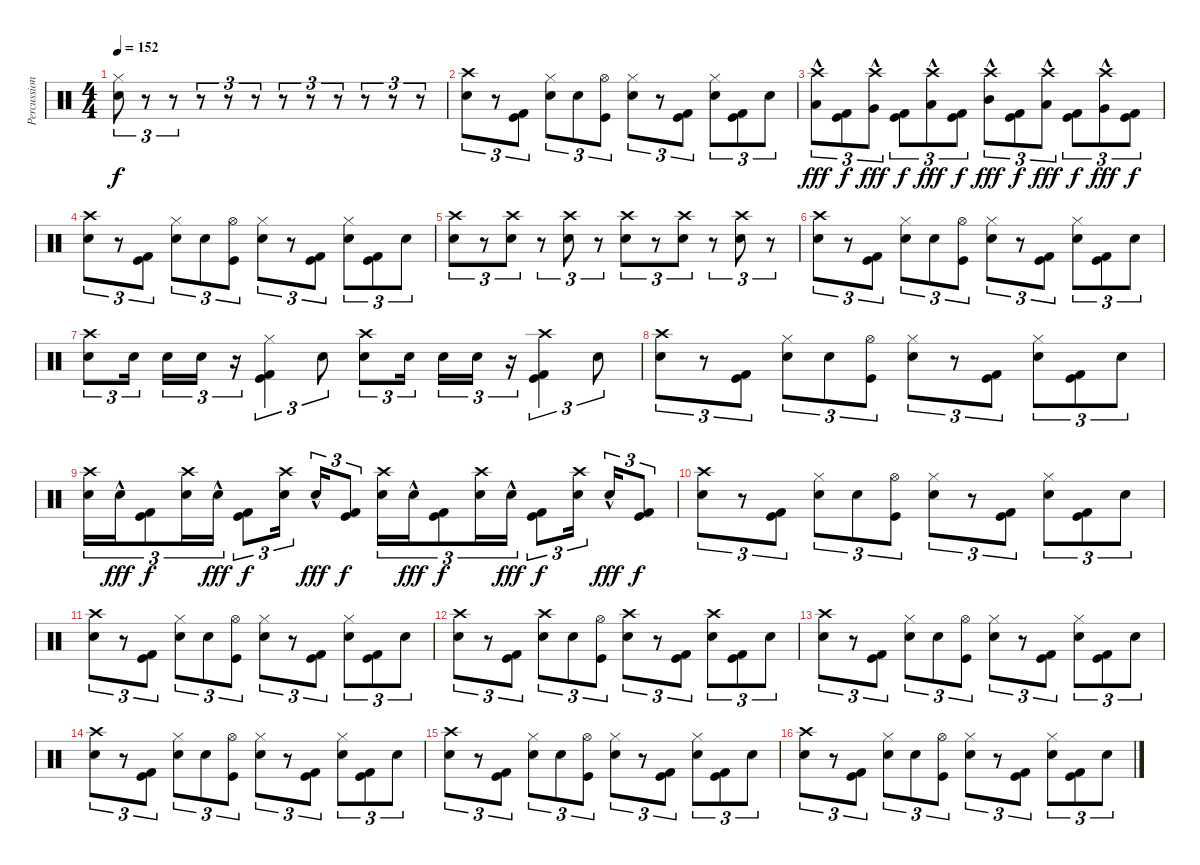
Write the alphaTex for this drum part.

\track ("Percussion" "Percussion") {instrument percussion}
\staff {score}
\articulation defaults
\ts (4 4)
\tempo 152
\clef neutral
\ks c
("Hi-Hat (closed)" "Electric Snare (hit)").8{tu (3 2) dy f} r.8{tu (3 2)} r.8{tu (3 2)} r.8{tu (3 2)} r.8{tu (3 2)} r.8{tu (3 2)} r.8{tu (3 2)} r.8{tu (3 2)} r.8{tu (3 2)} r.8{tu (3 2)} r.8{tu (3 2)} r.8{tu (3 2)} |
("Crash high (hit)" "Electric Snare (hit)").8{tu (3 2)} r.8{tu (3 2)} ("Kick (hit) 2" "Kick (hit)").8{tu (3 2)} ("Hi-Hat (closed)" "Electric Snare (hit)").8{tu (3 2)} "Electric Snare (hit)".8{tu (3 2)} ("Hi-Hat (open)" "Kick (hit)").8{tu (3 2)} ("Hi-Hat (closed)" "Electric Snare (hit)").8{tu (3 2)} r.8{tu (3 2)} ("Kick (hit) 2" "Kick (hit)").8{tu (3 2)} ("Hi-Hat (closed)" "Electric Snare (hit)").8{tu (3 2)} ("Kick (hit) 2" "Kick (hit)").8{tu (3 2)} "Electric Snare (hit)".8{tu (3 2)} |
("Crash high (hit)" "Low Floor Tom (hit)"{hac}).8{tu (3 2) dy fff} ("Kick (hit) 2" "Kick (hit)").8{tu (3 2) dy f} ("Crash high (hit)" "Very Low Tom (hit)"{hac}).8{tu (3 2) dy fff} ("Kick (hit) 2" "Kick (hit)").8{tu (3 2) dy f} ("Crash high (hit)" "Low Tom (hit)"{hac}).8{tu (3 2) dy fff} ("Kick (hit) 2" "Kick (hit)").8{tu (3 2) dy f} ("Crash high (hit)" "Mid Tom (hit)"{hac}).8{tu (3 2) dy fff} ("Kick (hit) 2" "Kick (hit)").8{tu (3 2) dy f} ("Crash high (hit)" "Low Tom (hit)"{hac}).8{tu (3 2) dy fff} ("Kick (hit) 2" "Kick (hit)").8{tu (3 2) dy f} ("Crash high (hit)" "Very Low Tom (hit)"{hac}).8{tu (3 2) dy fff} ("Kick (hit) 2" "Kick (hit)").8{tu (3 2) dy f} |
("Crash high (hit)" "Electric Snare (hit)").8{tu (3 2)} r.8{tu (3 2)} ("Kick (hit) 2" "Kick (hit)").8{tu (3 2)} ("Hi-Hat (closed)" "Electric Snare (hit)").8{tu (3 2)} "Electric Snare (hit)".8{tu (3 2)} ("Hi-Hat (open)" "Kick (hit)").8{tu (3 2)} ("Hi-Hat (closed)" "Electric Snare (hit)").8{tu (3 2)} r.8{tu (3 2)} ("Kick (hit) 2" "Kick (hit)").8{tu (3 2)} ("Hi-Hat (closed)" "Electric Snare (hit)").8{tu (3 2)} ("Kick (hit) 2" "Kick (hit)").8{tu (3 2)} "Electric Snare (hit)".8{tu (3 2)} |
("Crash high (hit)" "Electric Snare (hit)").8{tu (3 2)} r.8{tu (3 2)} ("Crash high (hit)" "Electric Snare (hit)").8{tu (3 2)} r.8{tu (3 2)} ("Crash high (hit)" "Electric Snare (hit)").8{tu (3 2)} r.8{tu (3 2)} ("Crash high (hit)" "Electric Snare (hit)").8{tu (3 2)} r.8{tu (3 2)} ("Crash high (hit)" "Electric Snare (hit)").8{tu (3 2)} r.8{tu (3 2)} ("Crash high (hit)" "Electric Snare (hit)").8{tu (3 2)} r.8{tu (3 2)} |
("Crash high (hit)" "Electric Snare (hit)").8{tu (3 2)} r.8{tu (3 2)} ("Kick (hit) 2" "Kick (hit)").8{tu (3 2)} ("Hi-Hat (closed)" "Electric Snare (hit)").8{tu (3 2)} "Electric Snare (hit)".8{tu (3 2)} ("Hi-Hat (open)" "Kick (hit)").8{tu (3 2)} ("Hi-Hat (closed)" "Electric Snare (hit)").8{tu (3 2)} r.8{tu (3 2)} ("Kick (hit) 2" "Kick (hit)").8{tu (3 2)} ("Hi-Hat (closed)" "Electric Snare (hit)").8{tu (3 2)} ("Kick (hit) 2" "Kick (hit)").8{tu (3 2)} "Electric Snare (hit)".8{tu (3 2)} |
("Crash high (hit)" "Electric Snare (hit)").8{tu (3 2)} "Electric Snare (hit)".16{tu (3 2) beam splitsecondary} "Electric Snare (hit)".16{tu (3 2)} "Electric Snare (hit)".16{tu (3 2)} r.16{tu (3 2)} ("Hi-Hat (closed)" "Kick (hit) 2" "Kick (hit)").4{tu (3 2)} "Electric Snare (hit)".8{tu (3 2)} ("Crash high (hit)" "Electric Snare (hit)").8{tu (3 2)} "Electric Snare (hit)".16{tu (3 2) beam splitsecondary} "Electric Snare (hit)".16{tu (3 2)} "Electric Snare (hit)".16{tu (3 2)} r.16{tu (3 2)} ("Crash high (hit)" "Kick (hit) 2" "Kick (hit)").4{tu (3 2)} "Electric Snare (hit)".8{tu (3 2)} |
("Crash high (hit)" "Electric Snare (hit)").8{tu (3 2)} r.8{tu (3 2)} ("Kick (hit) 2" "Kick (hit)").8{tu (3 2)} ("Hi-Hat (closed)" "Electric Snare (hit)").8{tu (3 2)} "Electric Snare (hit)".8{tu (3 2)} ("Hi-Hat (open)" "Kick (hit)").8{tu (3 2)} ("Hi-Hat (closed)" "Electric Snare (hit)").8{tu (3 2)} r.8{tu (3 2)} ("Kick (hit) 2" "Kick (hit)").8{tu (3 2)} ("Hi-Hat (closed)" "Electric Snare (hit)").8{tu (3 2)} ("Kick (hit) 2" "Kick (hit)").8{tu (3 2)} "Electric Snare (hit)".8{tu (3 2)} |
("Crash high (hit)" "Electric Snare (hit)").16{tu (3 2)} "Electric Snare (hit)"{hac}.16{tu (3 2) dy fff} ("Kick (hit) 2" "Kick (hit)").8{tu (3 2) dy f} ("Crash high (hit)" "Electric Snare (hit)").16{tu (3 2)} "Electric Snare (hit)"{hac}.16{tu (3 2) dy fff} ("Kick (hit) 2" "Kick (hit)").8{tu (3 2) dy f} ("Crash high (hit)" "Electric Snare (hit)").16{tu (3 2) beam splitsecondary} "Electric Snare (hit)"{hac}.16{tu (3 2) dy fff} ("Kick (hit) 2" "Kick (hit)").8{tu (3 2) dy f} ("Crash high (hit)" "Electric Snare (hit)").16{tu (3 2)} "Electric Snare (hit)"{hac}.16{tu (3 2) dy fff} ("Kick (hit) 2" "Kick (hit)").8{tu (3 2) dy f} ("Crash high (hit)" "Electric Snare (hit)").16{tu (3 2)} "Electric Snare (hit)"{hac}.16{tu (3 2) dy fff} ("Kick (hit) 2" "Kick (hit)").8{tu (3 2) dy f} ("Crash high (hit)" "Electric Snare (hit)").16{tu (3 2) beam splitsecondary} "Electric Snare (hit)"{hac}.16{tu (3 2) dy fff} ("Kick (hit) 2" "Kick (hit)").8{tu (3 2) dy f} |
("Crash high (hit)" "Electric Snare (hit)").8{tu (3 2)} r.8{tu (3 2)} ("Kick (hit) 2" "Kick (hit)").8{tu (3 2)} ("Hi-Hat (closed)" "Electric Snare (hit)").8{tu (3 2)} "Electric Snare (hit)".8{tu (3 2)} ("Hi-Hat (open)" "Kick (hit)").8{tu (3 2)} ("Hi-Hat (closed)" "Electric Snare (hit)").8{tu (3 2)} r.8{tu (3 2)} ("Kick (hit) 2" "Kick (hit)").8{tu (3 2)} ("Hi-Hat (closed)" "Electric Snare (hit)").8{tu (3 2)} ("Kick (hit) 2" "Kick (hit)").8{tu (3 2)} "Electric Snare (hit)".8{tu (3 2)} |
("Crash high (hit)" "Electric Snare (hit)").8{tu (3 2)} r.8{tu (3 2)} ("Kick (hit) 2" "Kick (hit)").8{tu (3 2)} ("Hi-Hat (closed)" "Electric Snare (hit)").8{tu (3 2)} "Electric Snare (hit)".8{tu (3 2)} ("Hi-Hat (open)" "Kick (hit)").8{tu (3 2)} ("Hi-Hat (closed)" "Electric Snare (hit)").8{tu (3 2)} r.8{tu (3 2)} ("Kick (hit) 2" "Kick (hit)").8{tu (3 2)} ("Hi-Hat (closed)" "Electric Snare (hit)").8{tu (3 2)} ("Kick (hit) 2" "Kick (hit)").8{tu (3 2)} "Electric Snare (hit)".8{tu (3 2)} |
("Crash high (hit)" "Electric Snare (hit)").8{tu (3 2)} r.8{tu (3 2)} ("Kick (hit) 2" "Kick (hit)").8{tu (3 2)} ("Crash high (hit)" "Electric Snare (hit)").8{tu (3 2)} "Electric Snare (hit)".8{tu (3 2)} ("Hi-Hat (open)" "Kick (hit)").8{tu (3 2)} ("Crash high (hit)" "Electric Snare (hit)").8{tu (3 2)} r.8{tu (3 2)} ("Kick (hit) 2" "Kick (hit)").8{tu (3 2)} ("Crash high (hit)" "Electric Snare (hit)").8{tu (3 2)} ("Kick (hit) 2" "Kick (hit)").8{tu (3 2)} "Electric Snare (hit)".8{tu (3 2)} |
("Crash high (hit)" "Electric Snare (hit)").8{tu (3 2)} r.8{tu (3 2)} ("Kick (hit) 2" "Kick (hit)").8{tu (3 2)} ("Hi-Hat (closed)" "Electric Snare (hit)").8{tu (3 2)} "Electric Snare (hit)".8{tu (3 2)} ("Hi-Hat (open)" "Kick (hit)").8{tu (3 2)} ("Hi-Hat (closed)" "Electric Snare (hit)").8{tu (3 2)} r.8{tu (3 2)} ("Kick (hit) 2" "Kick (hit)").8{tu (3 2)} ("Hi-Hat (closed)" "Electric Snare (hit)").8{tu (3 2)} ("Kick (hit) 2" "Kick (hit)").8{tu (3 2)} "Electric Snare (hit)".8{tu (3 2)} |
("Crash high (hit)" "Electric Snare (hit)").8{tu (3 2)} r.8{tu (3 2)} ("Kick (hit) 2" "Kick (hit)").8{tu (3 2)} ("Hi-Hat (closed)" "Electric Snare (hit)").8{tu (3 2)} "Electric Snare (hit)".8{tu (3 2)} ("Hi-Hat (open)" "Kick (hit)").8{tu (3 2)} ("Hi-Hat (closed)" "Electric Snare (hit)").8{tu (3 2)} r.8{tu (3 2)} ("Kick (hit) 2" "Kick (hit)").8{tu (3 2)} ("Hi-Hat (closed)" "Electric Snare (hit)").8{tu (3 2)} ("Kick (hit) 2" "Kick (hit)").8{tu (3 2)} "Electric Snare (hit)".8{tu (3 2)} |
("Crash high (hit)" "Electric Snare (hit)").8{tu (3 2)} r.8{tu (3 2)} ("Kick (hit) 2" "Kick (hit)").8{tu (3 2)} ("Hi-Hat (closed)" "Electric Snare (hit)").8{tu (3 2)} "Electric Snare (hit)".8{tu (3 2)} ("Hi-Hat (open)" "Kick (hit)").8{tu (3 2)} ("Hi-Hat (closed)" "Electric Snare (hit)").8{tu (3 2)} r.8{tu (3 2)} ("Kick (hit) 2" "Kick (hit)").8{tu (3 2)} ("Hi-Hat (closed)" "Electric Snare (hit)").8{tu (3 2)} ("Kick (hit) 2" "Kick (hit)").8{tu (3 2)} "Electric Snare (hit)".8{tu (3 2)} |
("Crash high (hit)" "Electric Snare (hit)").8{tu (3 2)} r.8{tu (3 2)} ("Kick (hit) 2" "Kick (hit)").8{tu (3 2)} ("Hi-Hat (closed)" "Electric Snare (hit)").8{tu (3 2)} "Electric Snare (hit)".8{tu (3 2)} ("Hi-Hat (open)" "Kick (hit)").8{tu (3 2)} ("Hi-Hat (closed)" "Electric Snare (hit)").8{tu (3 2)} r.8{tu (3 2)} ("Kick (hit) 2" "Kick (hit)").8{tu (3 2)} ("Hi-Hat (closed)" "Electric Snare (hit)").8{tu (3 2)} ("Kick (hit) 2" "Kick (hit)").8{tu (3 2)} "Electric Snare (hit)".8{tu (3 2)}
